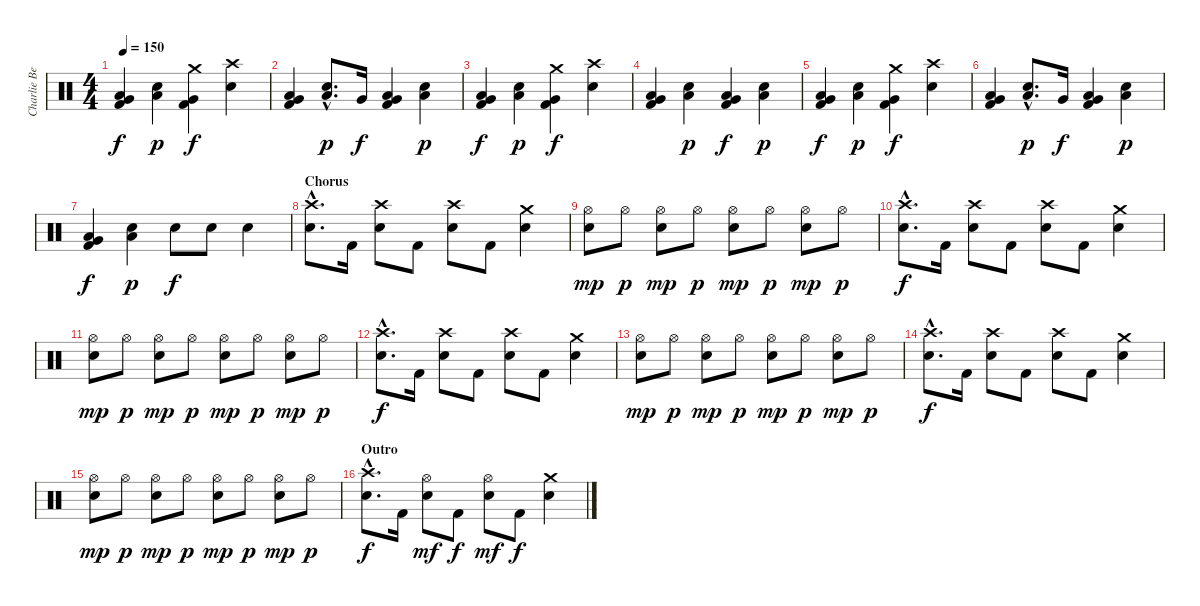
\track ("Charlie Benante" "Charlie Be") {instrument percussion}
\staff {score}
\articulation defaults
\ts (4 4)
\tempo 150
\clef neutral
\ks c
("Kick (hit) 2" "Low Tom (hit)" "Very Low Tom (hit)").4{dy f} ("Snare (hit) 2" "Low Tom (hit)").4{dy p} ("Kick (hit) 2" "Crash medium (hit)" "Very Low Tom (hit)").4{dy f} ("Crash high (hit)" "Snare (hit) 2").4 |
("Kick (hit) 2" "Low Tom (hit)" "Very Low Tom (hit)").4 ("Snare (hit) 2"{hac} "Low Tom (hit)"{hac}).8{d dy p} "Very Low Tom (hit)".16{dy f} ("Kick (hit) 2" "Low Tom (hit)" "Very Low Tom (hit)").4 ("Snare (hit) 2" "Low Tom (hit)").4{dy p} |
("Kick (hit) 2" "Low Tom (hit)" "Very Low Tom (hit)").4{dy f} ("Snare (hit) 2" "Low Tom (hit)").4{dy p} ("Kick (hit) 2" "Crash medium (hit)" "Very Low Tom (hit)").4{dy f} ("Crash high (hit)" "Snare (hit) 2").4 |
("Kick (hit) 2" "Low Tom (hit)" "Very Low Tom (hit)").4 ("Snare (hit) 2" "Low Tom (hit)").4{dy p} ("Kick (hit) 2" "Low Tom (hit)" "Very Low Tom (hit)").4{dy f} ("Snare (hit) 2" "Low Tom (hit)").4{dy p} |
("Kick (hit) 2" "Low Tom (hit)" "Very Low Tom (hit)").4{dy f} ("Snare (hit) 2" "Low Tom (hit)").4{dy p} ("Kick (hit) 2" "Crash medium (hit)" "Very Low Tom (hit)").4{dy f} ("Crash high (hit)" "Snare (hit) 2").4 |
("Kick (hit) 2" "Low Tom (hit)" "Very Low Tom (hit)").4 ("Snare (hit) 2"{hac} "Low Tom (hit)"{hac}).8{d dy p} "Very Low Tom (hit)".16{dy f} ("Kick (hit) 2" "Low Tom (hit)" "Very Low Tom (hit)").4 ("Snare (hit) 2" "Low Tom (hit)").4{dy p} |
("Kick (hit) 2" "Low Tom (hit)" "Very Low Tom (hit)").4{dy f} ("Snare (hit) 2" "Low Tom (hit)").4{dy p} "Snare (hit) 2".8{dy f} "Snare (hit) 2".8 "Snare (hit) 2".4 |
\section ("" "Chorus")
("Crash high (hit)"{hac} "Snare (hit) 2"{hac}).8{d} "Kick (hit) 2".16 ("Crash high (hit)" "Snare (hit) 2").8 "Kick (hit) 2".8 ("Crash high (hit)" "Snare (hit) 2").8 "Kick (hit) 2".8 ("Crash medium (hit)" "Snare (hit) 2").4 |
("Hi-Hat (open)" "Snare (hit) 2").8{dy mp} "Hi-Hat (open)".8{dy p} ("Hi-Hat (open)" "Snare (hit) 2").8{dy mp} "Hi-Hat (open)".8{dy p} ("Hi-Hat (open)" "Snare (hit) 2").8{dy mp} "Hi-Hat (open)".8{dy p} ("Hi-Hat (open)" "Snare (hit) 2").8{dy mp} "Hi-Hat (open)".8{dy p} |
("Crash high (hit)"{hac} "Snare (hit) 2"{hac}).8{d dy f} "Kick (hit) 2".16 ("Crash high (hit)" "Snare (hit) 2").8 "Kick (hit) 2".8 ("Crash high (hit)" "Snare (hit) 2").8 "Kick (hit) 2".8 ("Crash medium (hit)" "Snare (hit) 2").4 |
("Hi-Hat (open)" "Snare (hit) 2").8{dy mp} "Hi-Hat (open)".8{dy p} ("Hi-Hat (open)" "Snare (hit) 2").8{dy mp} "Hi-Hat (open)".8{dy p} ("Hi-Hat (open)" "Snare (hit) 2").8{dy mp} "Hi-Hat (open)".8{dy p} ("Hi-Hat (open)" "Snare (hit) 2").8{dy mp} "Hi-Hat (open)".8{dy p} |
("Crash high (hit)"{hac} "Snare (hit) 2"{hac}).8{d dy f} "Kick (hit) 2".16 ("Crash high (hit)" "Snare (hit) 2").8 "Kick (hit) 2".8 ("Crash high (hit)" "Snare (hit) 2").8 "Kick (hit) 2".8 ("Crash medium (hit)" "Snare (hit) 2").4 |
("Hi-Hat (open)" "Snare (hit) 2").8{dy mp} "Hi-Hat (open)".8{dy p} ("Hi-Hat (open)" "Snare (hit) 2").8{dy mp} "Hi-Hat (open)".8{dy p} ("Hi-Hat (open)" "Snare (hit) 2").8{dy mp} "Hi-Hat (open)".8{dy p} ("Hi-Hat (open)" "Snare (hit) 2").8{dy mp} "Hi-Hat (open)".8{dy p} |
("Crash high (hit)"{hac} "Snare (hit) 2"{hac}).8{d dy f} "Kick (hit) 2".16 ("Crash high (hit)" "Snare (hit) 2").8 "Kick (hit) 2".8 ("Crash high (hit)" "Snare (hit) 2").8 "Kick (hit) 2".8 ("Crash medium (hit)" "Snare (hit) 2").4 |
("Hi-Hat (open)" "Snare (hit) 2").8{dy mp} "Hi-Hat (open)".8{dy p} ("Hi-Hat (open)" "Snare (hit) 2").8{dy mp} "Hi-Hat (open)".8{dy p} ("Hi-Hat (open)" "Snare (hit) 2").8{dy mp} "Hi-Hat (open)".8{dy p} ("Hi-Hat (open)" "Snare (hit) 2").8{dy mp} "Hi-Hat (open)".8{dy p} |
\section ("" "Outro")
("Crash high (hit)"{hac} "Snare (hit) 2"{hac}).8{d dy f} "Kick (hit) 2".16 ("Hi-Hat (open)" "Snare (hit) 2").8{dy mf} "Kick (hit) 2".8{dy f} ("Hi-Hat (open)" "Snare (hit) 2").8{dy mf} "Kick (hit) 2".8{dy f} ("Crash medium (hit)" "Snare (hit) 2").4
